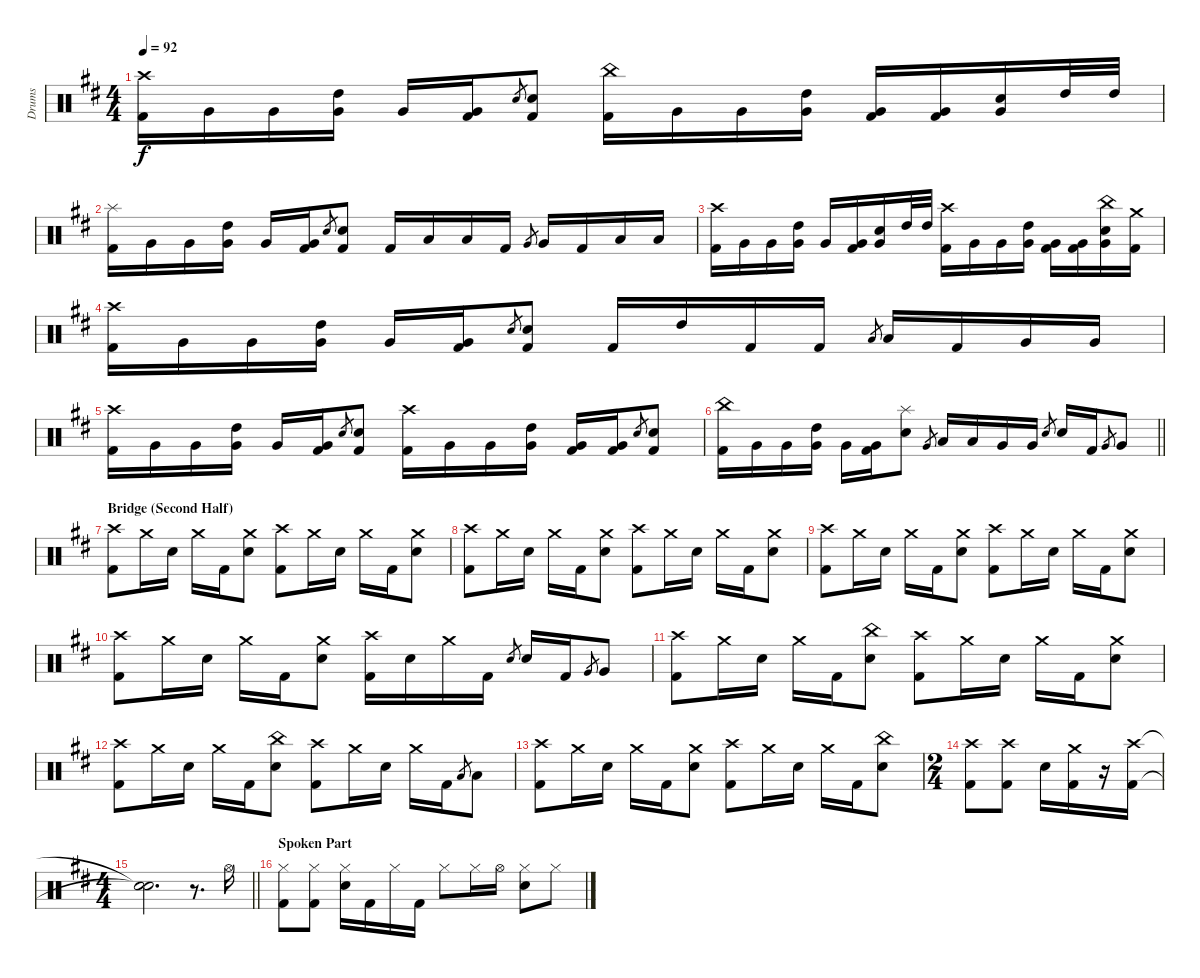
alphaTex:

\track ("Drums" "Drums") {instrument percussion}
\staff {score}
\articulation defaults
\ts (4 4)
\tempo 92
\clef neutral
\ks d
("Crash high (hit)" "Kick (hit) 2").16{dy f} "Very Low Tom (hit)".16 "Very Low Tom (hit)".16 ("High Tom (hit)" "Very Low Tom (hit)").16 "Very Low Tom (hit)".16 ("Kick (hit) 2" "Very Low Tom (hit)").16 "Snare (hit) 2".8{gr} ("Snare (hit) 2" "Kick (hit) 2").8 ("China (hit)" "Kick (hit) 2").16 "Very Low Tom (hit)".16 "Very Low Tom (hit)".16 ("High Tom (hit)" "Very Low Tom (hit)").16 ("Kick (hit) 2" "Very Low Tom (hit)").16 ("Kick (hit) 2" "Very Low Tom (hit)").16 ("Snare (hit) 2" "Very Low Tom (hit)").16 "High Tom (hit)".32 "High Tom (hit)".32 |
("Splash (hit)" "Kick (hit) 2").16 "Very Low Tom (hit)".16 "Very Low Tom (hit)".16 ("High Tom (hit)" "Very Low Tom (hit)").16 "Very Low Tom (hit)".16 ("Kick (hit) 2" "Very Low Tom (hit)").16 "Snare (hit) 2".8{gr} ("Snare (hit) 2" "Kick (hit) 2").8 "Kick (hit) 2".16 "Low Tom (hit)".16 "Low Tom (hit)".16 "Kick (hit) 2".16 "Very Low Tom (hit)".8{gr} "Very Low Tom (hit)".16 "Kick (hit) 2".16 "Low Floor Tom (hit)".16 "Low Floor Tom (hit)".16 |
("Crash high (hit)" "Kick (hit) 2").16 "Very Low Tom (hit)".16 "Very Low Tom (hit)".16 ("High Tom (hit)" "Very Low Tom (hit)").16 "Very Low Tom (hit)".16 ("Kick (hit) 2" "Very Low Tom (hit)").16 ("Snare (hit) 2" "Very Low Tom (hit)").16 "High Tom (hit)".32 "High Tom (hit)".32 ("Crash high (hit)" "Kick (hit) 2").16 "Very Low Tom (hit)".16 "Very Low Tom (hit)".16 ("High Tom (hit)" "Very Low Tom (hit)").16 ("Kick (hit) 2" "Very Low Tom (hit)").16 ("Kick (hit) 2" "Very Low Tom (hit)").16 ("China (hit)" "Snare (hit) 2" "Very Low Tom (hit)").16 ("Crash medium (hit)" "Kick (hit) 2").16 |
("Crash high (hit)" "Kick (hit) 2").16 "Very Low Tom (hit)".16 "Very Low Tom (hit)".16 ("High Tom (hit)" "Very Low Tom (hit)").16 "Very Low Tom (hit)".16 ("Kick (hit) 2" "Very Low Tom (hit)").16 "Snare (hit) 2".8{gr} ("Snare (hit) 2" "Kick (hit) 2").8 "Kick (hit) 2".16 "High Tom (hit)".16 "Kick (hit) 2".16 "Kick (hit) 2".16 "Low Tom (hit)".8{gr} "Low Tom (hit)".16 "Kick (hit) 2".16 "Very Low Tom (hit)".16 "Very Low Tom (hit)".16 |
("Crash high (hit)" "Kick (hit) 2").16 "Very Low Tom (hit)".16 "Very Low Tom (hit)".16 ("High Tom (hit)" "Very Low Tom (hit)").16 "Very Low Tom (hit)".16 ("Kick (hit) 2" "Very Low Tom (hit)").16 "Snare (hit) 2".8{gr} ("Snare (hit) 2" "Kick (hit) 2").8 ("Crash high (hit)" "Kick (hit) 2").16 "Very Low Tom (hit)".16 "Very Low Tom (hit)".16 ("High Tom (hit)" "Very Low Tom (hit)").16 ("Kick (hit) 2" "Very Low Tom (hit)").16 ("Kick (hit) 2" "Very Low Tom (hit)").16 "Snare (hit) 2".8{gr} ("Snare (hit) 2" "Kick (hit) 2").8 |
\barLineRight lightlight
("China (hit)" "Kick (hit) 2").16 "Very Low Tom (hit)".16 "Very Low Tom (hit)".16 ("High Tom (hit)" "Very Low Tom (hit)").16 "Very Low Tom (hit)".16 ("Kick (hit) 2" "Very Low Tom (hit)").16 ("Splash (hit)" "Snare (hit) 2").8 "Very Low Tom (hit)".8{gr} "Low Tom (hit)".16 "Low Tom (hit)".16 "Very Low Tom (hit)".16 "Very Low Tom (hit)".16 "Snare (hit) 2".8{gr} "Snare (hit) 2".16 "Kick (hit) 2".16 "Very Low Tom (hit)".8{gr} "Very Low Tom (hit)".8 |
\section ("" "Bridge (Second Half)")
("Crash high (hit)" "Kick (hit) 2").8 "Crash medium (hit)".16 "Snare (hit) 2".16 "Crash medium (hit)".16 "Kick (hit) 2".16 ("Crash medium (hit)" "Snare (hit) 2").8 ("Crash high (hit)" "Kick (hit) 2").8 "Crash medium (hit)".16 "Snare (hit) 2".16 "Crash medium (hit)".16 "Kick (hit) 2".16 ("Crash medium (hit)" "Snare (hit) 2").8 |
("Crash high (hit)" "Kick (hit) 2").8 "Crash medium (hit)".16 "Snare (hit) 2".16 "Crash medium (hit)".16 "Kick (hit) 2".16 ("Crash medium (hit)" "Snare (hit) 2").8 ("Crash high (hit)" "Kick (hit) 2").8 "Crash medium (hit)".16 "Snare (hit) 2".16 "Crash medium (hit)".16 "Kick (hit) 2".16 ("Crash medium (hit)" "Snare (hit) 2").8 |
("Crash high (hit)" "Kick (hit) 2").8 "Crash medium (hit)".16 "Snare (hit) 2".16 "Crash medium (hit)".16 "Kick (hit) 2".16 ("Crash medium (hit)" "Snare (hit) 2").8 ("Crash high (hit)" "Kick (hit) 2").8 "Crash medium (hit)".16 "Snare (hit) 2".16 "Crash medium (hit)".16 "Kick (hit) 2".16 ("Crash medium (hit)" "Snare (hit) 2").8 |
("Crash high (hit)" "Kick (hit) 2").8 "Crash medium (hit)".16 "Snare (hit) 2".16 "Crash medium (hit)".16 "Kick (hit) 2".16 ("Crash medium (hit)" "Snare (hit) 2").8 ("Crash high (hit)" "Kick (hit) 2").16 "Snare (hit) 2".16 "Crash medium (hit)".16 "Kick (hit) 2".16 "Snare (hit) 2".8{gr} "Snare (hit) 2".16 "Kick (hit) 2".16 "Very Low Tom (hit)".8{gr} "Very Low Tom (hit)".8 |
("Crash high (hit)" "Kick (hit) 2").8 "Crash medium (hit)".16 "Snare (hit) 2".16 "Crash medium (hit)".16 "Kick (hit) 2".16 ("China (hit)" "Snare (hit) 2").8 ("Crash high (hit)" "Kick (hit) 2").8 "Crash medium (hit)".16 "Snare (hit) 2".16 "Crash medium (hit)".16 "Kick (hit) 2".16 ("Crash medium (hit)" "Snare (hit) 2").8 |
("Crash high (hit)" "Kick (hit) 2").8 "Crash medium (hit)".16 "Snare (hit) 2".16 "Crash medium (hit)".16 "Kick (hit) 2".16 ("China (hit)" "Snare (hit) 2").8 ("Crash high (hit)" "Kick (hit) 2").8 "Crash medium (hit)".16 "Snare (hit) 2".16 "Crash medium (hit)".16 "Kick (hit) 2".16 "Low Tom (hit)".8{gr} "Low Tom (hit)".8 |
("Crash high (hit)" "Kick (hit) 2").8 "Crash medium (hit)".16 "Snare (hit) 2".16 "Crash medium (hit)".16 "Kick (hit) 2".16 ("Crash medium (hit)" "Snare (hit) 2").8 ("Crash high (hit)" "Kick (hit) 2").8 "Crash medium (hit)".16 "Snare (hit) 2".16 "Crash medium (hit)".16 "Kick (hit) 2".16 ("China (hit)" "Snare (hit) 2").8 |
\ts (2 4)
("Crash high (hit)" "Kick (hit) 2").8 ("Crash high (hit)" "Kick (hit) 2").8 "Snare (hit) 2".16 ("Crash medium (hit)" "Kick (hit) 2").16 r.16 ("Crash high (hit)" "Kick (hit) 2").16 |
\ts (4 4)
\barLineRight lightlight
("Snare (hit)"{t} "Snare (hit)"{t}).2{d} r.8{d} "Hi-Hat (open)".16 |
\section ("" "Spoken Part")
("Hi-Hat (closed)" "Kick (hit) 2").8 ("Hi-Hat (closed)" "Kick (hit) 2").8 ("Hi-Hat (closed)" "Snare (hit) 2").16 "Kick (hit) 2".16 "Hi-Hat (closed)".16 "Kick (hit) 2".16 "Hi-Hat (closed)".8 "Hi-Hat (closed)".16 "Hi-Hat (open)".16 ("Hi-Hat (closed)" "Snare (hit) 2").8 "Hi-Hat (closed)".8
